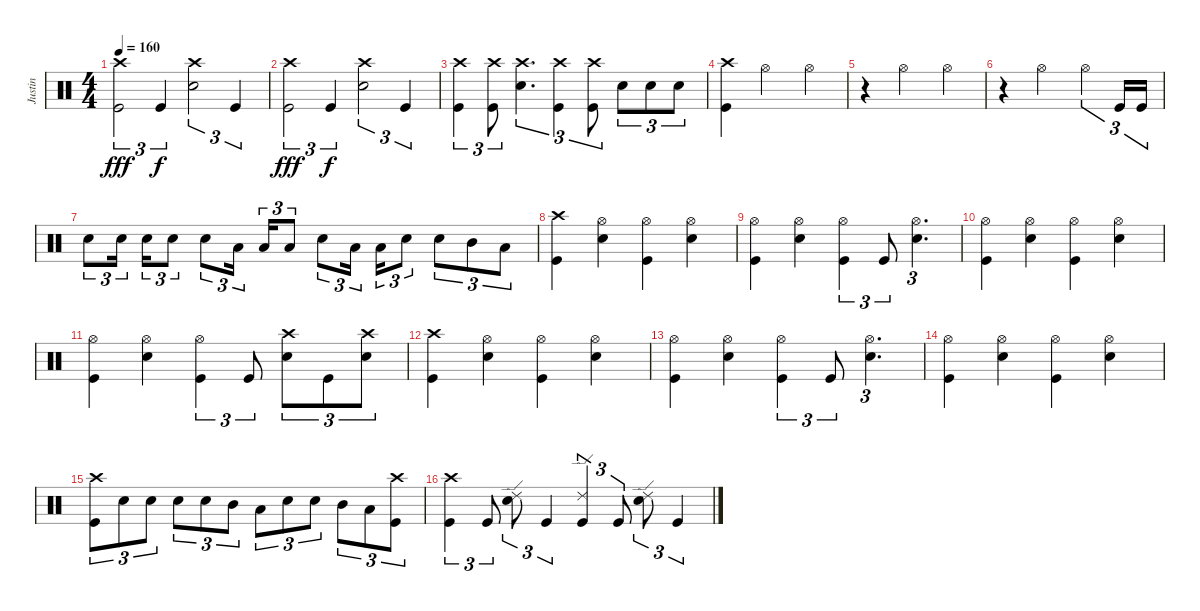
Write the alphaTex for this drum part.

\track ("Justin" "Justin") {instrument percussion}
\staff {score}
\articulation defaults
\ts (4 4)
\tempo 160
\clef neutral
\ks c
("Crash high (hit)" "Kick (hit)").2{tu (3 2) dy fff} "Kick (hit)".4{tu (3 2) dy f} ("Crash high (hit)" "Electric Snare (hit)").2{tu (3 2)} "Kick (hit)".4{tu (3 2)} |
("Crash high (hit)" "Kick (hit)").2{tu (3 2) dy fff} "Kick (hit)".4{tu (3 2) dy f} ("Crash high (hit)" "Electric Snare (hit)").2{tu (3 2)} "Kick (hit)".4{tu (3 2)} |
("Crash high (hit)" "Kick (hit)").4{tu (3 2)} ("Crash high (hit)" "Kick (hit)").8{tu (3 2)} ("Crash high (hit)" "Electric Snare (hit)").4{d tu (3 2)} ("Crash high (hit)" "Kick (hit)").4{tu (3 2)} ("Crash high (hit)" "Kick (hit)").8{tu (3 2)} "Electric Snare (hit)".8{tu (3 2)} "Electric Snare (hit)".8{tu (3 2)} "Electric Snare (hit)".8{tu (3 2)} |
("Crash high (hit)" "Kick (hit)").4 "Hi-Hat (open)".2 "Hi-Hat (open)".4 |
r.4 "Hi-Hat (open)".2 "Hi-Hat (open)".4 |
r.4 "Hi-Hat (open)".2 "Hi-Hat (open)".4{tu (3 2)} "Kick (hit)".16{tu (3 2)} "Kick (hit)".16{tu (3 2)} |
"Electric Snare (hit)".8{tu (3 2)} "Electric Snare (hit)".16{tu (3 2) beam splitsecondary} "Electric Snare (hit)".16{tu (3 2)} "Electric Snare (hit)".8{tu (3 2)} "Electric Snare (hit)".8{tu (3 2)} "Low Tom (hit)".16{tu (3 2) beam splitsecondary} "Low Tom (hit)".16{tu (3 2)} "Low Tom (hit)".8{tu (3 2)} "Electric Snare (hit)".8{tu (3 2)} "Low Tom (hit)".16{tu (3 2) beam splitsecondary} "Low Tom (hit)".16{tu (3 2)} "Electric Snare (hit)".8{tu (3 2)} "Electric Snare (hit)".8{tu (3 2)} "Mid Tom (hit)".8{tu (3 2)} "Low Tom (hit)".8{tu (3 2)} |
("Crash high (hit)" "Kick (hit)").4 ("Hi-Hat (open)" "Electric Snare (hit)").4 ("Hi-Hat (open)" "Kick (hit)").4 ("Hi-Hat (open)" "Electric Snare (hit)").4 |
("Hi-Hat (open)" "Kick (hit)").4 ("Hi-Hat (open)" "Electric Snare (hit)").4 ("Hi-Hat (open)" "Kick (hit)").4{tu (3 2)} "Kick (hit)".8{tu (3 2)} ("Hi-Hat (open)" "Electric Snare (hit)").4{d tu (3 2)} |
("Hi-Hat (open)" "Kick (hit)").4 ("Hi-Hat (open)" "Electric Snare (hit)").4 ("Hi-Hat (open)" "Kick (hit)").4 ("Hi-Hat (open)" "Electric Snare (hit)").4 |
("Hi-Hat (open)" "Kick (hit)").4 ("Hi-Hat (open)" "Electric Snare (hit)").4 ("Hi-Hat (open)" "Kick (hit)").4{tu (3 2)} "Kick (hit)".8{tu (3 2)} ("Crash high (hit)" "Electric Snare (hit)").8{tu (3 2)} "Kick (hit)".8{tu (3 2)} ("Crash high (hit)" "Electric Snare (hit)").8{tu (3 2)} |
("Crash high (hit)" "Kick (hit)").4 ("Hi-Hat (open)" "Electric Snare (hit)").4 ("Hi-Hat (open)" "Kick (hit)").4 ("Hi-Hat (open)" "Electric Snare (hit)").4 |
("Hi-Hat (open)" "Kick (hit)").4 ("Hi-Hat (open)" "Electric Snare (hit)").4 ("Hi-Hat (open)" "Kick (hit)").4{tu (3 2)} "Kick (hit)".8{tu (3 2)} ("Hi-Hat (open)" "Electric Snare (hit)").4{d tu (3 2)} |
("Hi-Hat (open)" "Kick (hit)").4 ("Hi-Hat (open)" "Electric Snare (hit)").4 ("Hi-Hat (open)" "Kick (hit)").4 ("Hi-Hat (open)" "Electric Snare (hit)").4 |
("Crash high (hit)" "Kick (hit)").8{tu (3 2)} "Electric Snare (hit)".8{tu (3 2)} "Electric Snare (hit)".8{tu (3 2)} "Electric Snare (hit)".8{tu (3 2)} "Electric Snare (hit)".8{tu (3 2)} "Mid Tom (hit)".8{tu (3 2)} "Low Tom (hit)".8{tu (3 2)} "Electric Snare (hit)".8{tu (3 2)} "Electric Snare (hit)".8{tu (3 2)} "Mid Tom (hit)".8{tu (3 2)} "Low Tom (hit)".8{tu (3 2)} ("Crash high (hit)" "Kick (hit)").8{tu (3 2)} |
("Crash high (hit)" "Kick (hit)").4{tu (3 2)} "Kick (hit)".8{tu (3 2)} ("Ride (edge) 2" "Electric Snare (hit)").8{tu (3 2)} "Kick (hit)".4{tu (3 2)} ("Ride (edge) 2" "Kick (hit)").4{tu (3 2)} "Kick (hit)".8{tu (3 2)} ("Ride (edge) 2" "Electric Snare (hit)").8{tu (3 2)} "Kick (hit)".4{tu (3 2)}
